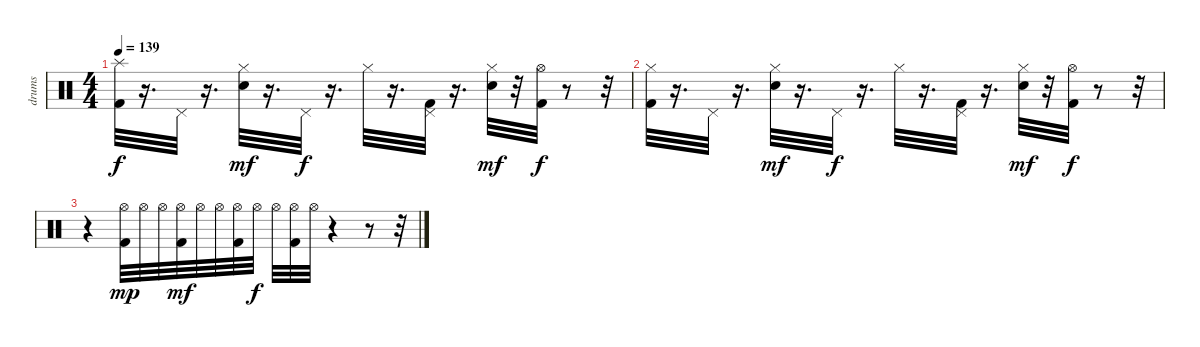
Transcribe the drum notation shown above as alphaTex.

\track ("drums" "drums") {instrument percussion}
\staff {score}
\articulation defaults
\ts (4 4)
\tempo 139
\clef neutral
\ks c
("Splash (hit)" "Kick (hit) 2").32{dy f} r.16{d} "Pedal Hi-Hat (hit)".32 r.16{d} ("Hi-Hat (closed)" "Snare (hit) 2").32{dy mf} r.16{d} "Pedal Hi-Hat (hit)".32{dy f} r.16{d} "Hi-Hat (closed)".32 r.16{d} ("Kick (hit) 2" "Pedal Hi-Hat (hit)").32 r.16{d} ("Snare (hit) 2" "Hi-Hat (closed)").32{dy mf} r.32 ("Kick (hit) 2" "Hi-Hat (open)").32{dy f} r.8 r.32 |
("Kick (hit) 2" "Hi-Hat (closed)").32 r.16{d} "Pedal Hi-Hat (hit)".32 r.16{d} ("Snare (hit) 2" "Hi-Hat (closed)").32{dy mf} r.16{d} "Pedal Hi-Hat (hit)".32{dy f} r.16{d} "Hi-Hat (closed)".32 r.16{d} ("Pedal Hi-Hat (hit)" "Kick (hit) 2").32 r.16{d} ("Hi-Hat (closed)" "Snare (hit) 2").32{dy mf} r.32 ("Kick (hit) 2" "Hi-Hat (open)").32{dy f} r.8 r.32 |
r.4 ("Hi-Hat (open)" "Kick (hit) 2").32{dy mp} "Hi-Hat (open)".32 "Hi-Hat (open)".32 ("Hi-Hat (open)" "Kick (hit) 2").32{dy mf} "Hi-Hat (open)".32 "Hi-Hat (open)".32 ("Hi-Hat (open)" "Kick (hit) 2").32 "Hi-Hat (open)".32{dy f} "Hi-Hat (open)".32 ("Hi-Hat (open)" "Kick (hit) 2").32 "Hi-Hat (open)".32 r.4 r.8 r.32
